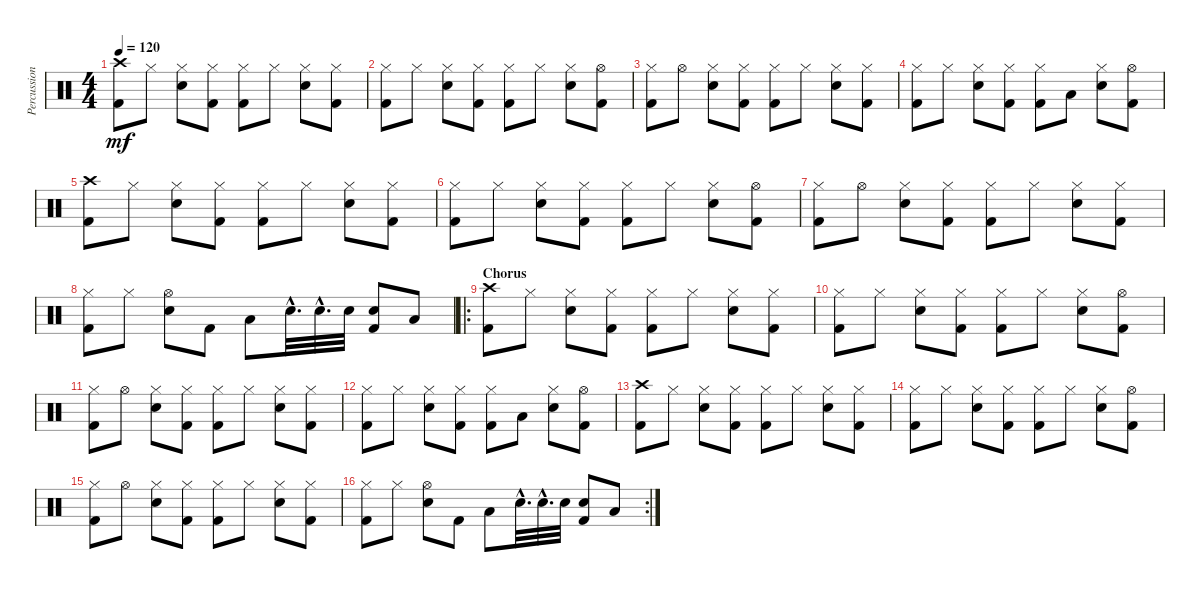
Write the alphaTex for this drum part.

\track ("Percussion" "Percussion") {instrument percussion}
\staff {score}
\articulation defaults
\ts (4 4)
\tempo 120
\clef neutral
\ks c
("Kick (hit) 2" "Crash high (hit)").8{dy mf} "Hi-Hat (closed)".8 ("Hi-Hat (closed)" "Snare (hit) 2").8 ("Hi-Hat (closed)" "Kick (hit) 2").8 ("Kick (hit) 2" "Hi-Hat (closed)").8 "Hi-Hat (closed)".8 ("Snare (hit) 2" "Hi-Hat (closed)").8 ("Kick (hit) 2" "Hi-Hat (closed)").8 |
("Kick (hit) 2" "Hi-Hat (closed)").8 "Hi-Hat (closed)".8 ("Hi-Hat (closed)" "Snare (hit) 2").8 ("Hi-Hat (closed)" "Kick (hit) 2").8 ("Kick (hit) 2" "Hi-Hat (closed)").8 "Hi-Hat (closed)".8 ("Snare (hit) 2" "Hi-Hat (closed)").8 ("Hi-Hat (open)" "Kick (hit) 2").8 |
("Kick (hit) 2" "Hi-Hat (closed)").8 "Hi-Hat (open)".8 ("Hi-Hat (closed)" "Snare (hit) 2").8 ("Hi-Hat (closed)" "Kick (hit) 2").8 ("Kick (hit) 2" "Hi-Hat (closed)").8 "Hi-Hat (closed)".8 ("Snare (hit) 2" "Hi-Hat (closed)").8 ("Kick (hit) 2" "Hi-Hat (closed)").8 |
("Kick (hit) 2" "Hi-Hat (closed)").8 "Hi-Hat (closed)".8 ("Hi-Hat (closed)" "Snare (hit) 2").8 ("Hi-Hat (closed)" "Kick (hit) 2").8 ("Kick (hit) 2" "Hi-Hat (closed)").8 "Low Floor Tom (hit)".8 ("Snare (hit) 2" "Hi-Hat (closed)").8 ("Hi-Hat (open)" "Kick (hit) 2").8 |
("Kick (hit) 2" "Crash high (hit)").8 "Hi-Hat (closed)".8 ("Hi-Hat (closed)" "Snare (hit) 2").8 ("Hi-Hat (closed)" "Kick (hit) 2").8 ("Kick (hit) 2" "Hi-Hat (closed)").8 "Hi-Hat (closed)".8 ("Snare (hit) 2" "Hi-Hat (closed)").8 ("Kick (hit) 2" "Hi-Hat (closed)").8 |
("Kick (hit) 2" "Hi-Hat (closed)").8 "Hi-Hat (closed)".8 ("Hi-Hat (closed)" "Snare (hit) 2").8 ("Hi-Hat (closed)" "Kick (hit) 2").8 ("Kick (hit) 2" "Hi-Hat (closed)").8 "Hi-Hat (closed)".8 ("Snare (hit) 2" "Hi-Hat (closed)").8 ("Hi-Hat (open)" "Kick (hit) 2").8 |
("Kick (hit) 2" "Hi-Hat (closed)").8 "Hi-Hat (open)".8 ("Hi-Hat (closed)" "Snare (hit) 2").8 ("Hi-Hat (closed)" "Kick (hit) 2").8 ("Kick (hit) 2" "Hi-Hat (closed)").8 "Hi-Hat (closed)".8 ("Snare (hit) 2" "Hi-Hat (closed)").8 ("Kick (hit) 2" "Hi-Hat (closed)").8 |
("Kick (hit) 2" "Hi-Hat (closed)").8 "Hi-Hat (closed)".8 ("Hi-Hat (open)" "Snare (hit) 2").8 "Kick (hit) 2".8 "Low Tom (hit)".8 "Snare (hit) 2"{hac}.32{d} "Snare (hit) 2"{hac}.32{d} "Snare (hit) 2".32 ("Snare (hit) 2" "Kick (hit) 2").8 "Low Floor Tom (hit)".8 |
\ro
\section ("" "Chorus")
("Kick (hit) 2" "Crash high (hit)").8 "Hi-Hat (closed)".8 ("Hi-Hat (closed)" "Snare (hit) 2").8 ("Hi-Hat (closed)" "Kick (hit) 2").8 ("Kick (hit) 2" "Hi-Hat (closed)").8 "Hi-Hat (closed)".8 ("Snare (hit) 2" "Hi-Hat (closed)").8 ("Kick (hit) 2" "Hi-Hat (closed)").8 |
("Kick (hit) 2" "Hi-Hat (closed)").8 "Hi-Hat (closed)".8 ("Hi-Hat (closed)" "Snare (hit) 2").8 ("Hi-Hat (closed)" "Kick (hit) 2").8 ("Kick (hit) 2" "Hi-Hat (closed)").8 "Hi-Hat (closed)".8 ("Snare (hit) 2" "Hi-Hat (closed)").8 ("Hi-Hat (open)" "Kick (hit) 2").8 |
("Kick (hit) 2" "Hi-Hat (closed)").8 "Hi-Hat (open)".8 ("Hi-Hat (closed)" "Snare (hit) 2").8 ("Hi-Hat (closed)" "Kick (hit) 2").8 ("Kick (hit) 2" "Hi-Hat (closed)").8 "Hi-Hat (closed)".8 ("Snare (hit) 2" "Hi-Hat (closed)").8 ("Kick (hit) 2" "Hi-Hat (closed)").8 |
("Kick (hit) 2" "Hi-Hat (closed)").8 "Hi-Hat (closed)".8 ("Hi-Hat (closed)" "Snare (hit) 2").8 ("Hi-Hat (closed)" "Kick (hit) 2").8 ("Kick (hit) 2" "Hi-Hat (closed)").8 "Low Floor Tom (hit)".8 ("Snare (hit) 2" "Hi-Hat (closed)").8 ("Hi-Hat (open)" "Kick (hit) 2").8 |
("Kick (hit) 2" "Crash high (hit)").8 "Hi-Hat (closed)".8 ("Hi-Hat (closed)" "Snare (hit) 2").8 ("Hi-Hat (closed)" "Kick (hit) 2").8 ("Kick (hit) 2" "Hi-Hat (closed)").8 "Hi-Hat (closed)".8 ("Snare (hit) 2" "Hi-Hat (closed)").8 ("Kick (hit) 2" "Hi-Hat (closed)").8 |
("Kick (hit) 2" "Hi-Hat (closed)").8 "Hi-Hat (closed)".8 ("Hi-Hat (closed)" "Snare (hit) 2").8 ("Hi-Hat (closed)" "Kick (hit) 2").8 ("Kick (hit) 2" "Hi-Hat (closed)").8 "Hi-Hat (closed)".8 ("Snare (hit) 2" "Hi-Hat (closed)").8 ("Hi-Hat (open)" "Kick (hit) 2").8 |
("Kick (hit) 2" "Hi-Hat (closed)").8 "Hi-Hat (open)".8 ("Hi-Hat (closed)" "Snare (hit) 2").8 ("Hi-Hat (closed)" "Kick (hit) 2").8 ("Kick (hit) 2" "Hi-Hat (closed)").8 "Hi-Hat (closed)".8 ("Snare (hit) 2" "Hi-Hat (closed)").8 ("Kick (hit) 2" "Hi-Hat (closed)").8 |
\rc 2
("Kick (hit) 2" "Hi-Hat (closed)").8 "Hi-Hat (closed)".8 ("Hi-Hat (open)" "Snare (hit) 2").8 "Kick (hit) 2".8 "Low Tom (hit)".8 "Snare (hit) 2"{hac}.32{d} "Snare (hit) 2"{hac}.32{d} "Snare (hit) 2".32 ("Snare (hit) 2" "Kick (hit) 2").8 "Low Floor Tom (hit)".8
